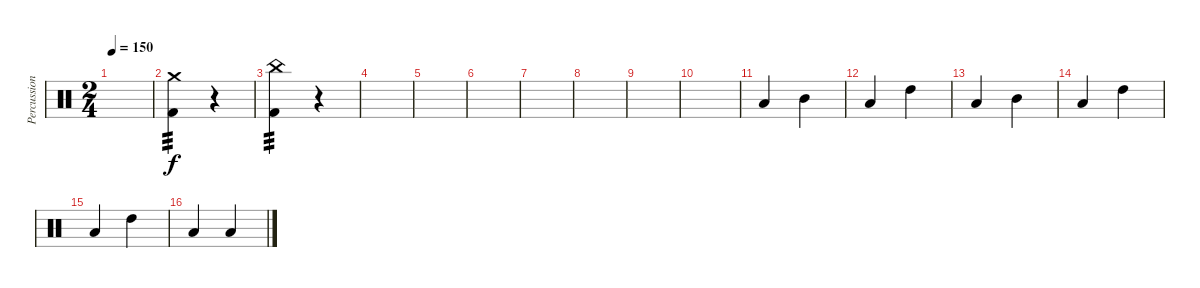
\track ("Percussion" "Percussion") {instrument percussion}
\staff {score}
\articulation defaults
\ts (2 4)
\tempo 150
\clef neutral
\ks c
|
("Crash medium (hit)" "Kick (hit) 2").4{tp 3} r.4 |
("China (hit)" "Kick (hit) 2").4{tp 3} r.4 |
|
|
|
|
|
|
|
"Low Tom (hit)".4 "Mid Tom (hit)".4 |
"Low Tom (hit)".4 "High Tom (hit)".4 |
"Low Tom (hit)".4 "Mid Tom (hit)".4 |
"Low Tom (hit)".4 "High Tom (hit)".4 |
"Low Tom (hit)".4 "High Tom (hit)".4 |
"Low Tom (hit)".4 "Low Tom (hit)".4
